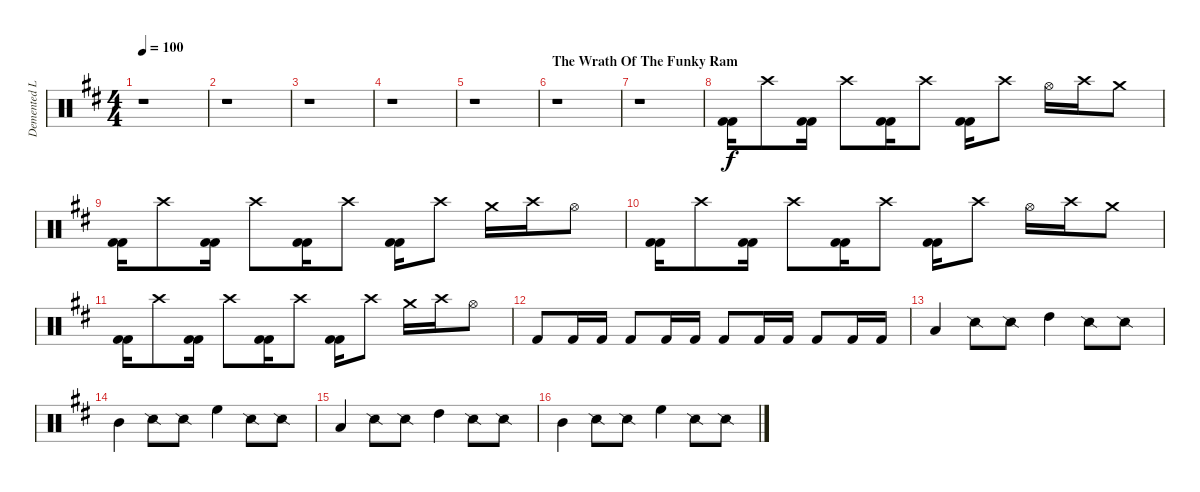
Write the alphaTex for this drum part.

\track ("Demented Leming (Drums)" "Demented L") {instrument percussion}
\staff {score}
\articulation defaults
\ts (4 4)
\tempo 100
\clef neutral
\ks d
r.1{dy f} |
r.1 |
r.1 |
r.1 |
r.1 |
\section ("" "The Wrath Of The Funky Ram")
r.1 |
r.1 |
("Kick (hit) 2" "Kick (hit) 2").16 "Crash high (hit)".8 ("Kick (hit) 2" "Kick (hit) 2").16 "Crash high (hit)".8 ("Kick (hit) 2" "Kick (hit) 2").16 "Crash high (hit)".8 ("Kick (hit) 2" "Kick (hit) 2").16 "Crash high (hit)".8 "Hi-Hat (open)".16 "Crash high (hit)".16 "Crash medium (hit)".8 |
("Kick (hit) 2" "Kick (hit) 2").16 "Crash high (hit)".8 ("Kick (hit) 2" "Kick (hit) 2").16 "Crash high (hit)".8 ("Kick (hit) 2" "Kick (hit) 2").16 "Crash high (hit)".8 ("Kick (hit) 2" "Kick (hit) 2").16 "Crash high (hit)".8 "Crash medium (hit)".16 "Crash high (hit)".16 "Hi-Hat (open)".8 |
("Kick (hit) 2" "Kick (hit) 2").16 "Crash high (hit)".8 ("Kick (hit) 2" "Kick (hit) 2").16 "Crash high (hit)".8 ("Kick (hit) 2" "Kick (hit) 2").16 "Crash high (hit)".8 ("Kick (hit) 2" "Kick (hit) 2").16 "Crash high (hit)".8 "Hi-Hat (open)".16 "Crash high (hit)".16 "Crash medium (hit)".8 |
("Kick (hit) 2" "Kick (hit) 2").16 "Crash high (hit)".8 ("Kick (hit) 2" "Kick (hit) 2").16 "Crash high (hit)".8 ("Kick (hit) 2" "Kick (hit) 2").16 "Crash high (hit)".8 ("Kick (hit) 2" "Kick (hit) 2").16 "Crash high (hit)".8 "Crash medium (hit)".16 "Crash high (hit)".16 "Hi-Hat (open)".8 |
"Kick (hit) 2".8 "Kick (hit) 2".16 "Kick (hit) 2".16 "Kick (hit) 2".8 "Kick (hit) 2".16 "Kick (hit) 2".16 "Kick (hit) 2".8 "Kick (hit) 2".16 "Kick (hit) 2".16 "Kick (hit) 2".8 "Kick (hit) 2".16 "Kick (hit) 2".16 |
"Low Tom (hit)".4 "Snare (side stick) 2".8 "Snare (side stick) 2".8 "High Tom (hit)".4 "Snare (side stick) 2".8 "Snare (side stick) 2".8 |
"Mid Tom (hit)".4 "Snare (side stick) 2".8 "Snare (side stick) 2".8 "High Floor Tom (hit)".4 "Snare (side stick) 2".8 "Snare (side stick) 2".8 |
"Low Tom (hit)".4 "Snare (side stick) 2".8 "Snare (side stick) 2".8 "High Tom (hit)".4 "Snare (side stick) 2".8 "Snare (side stick) 2".8 |
"Mid Tom (hit)".4 "Snare (side stick) 2".8 "Snare (side stick) 2".8 "High Floor Tom (hit)".4 "Snare (side stick) 2".8 "Snare (side stick) 2".8
